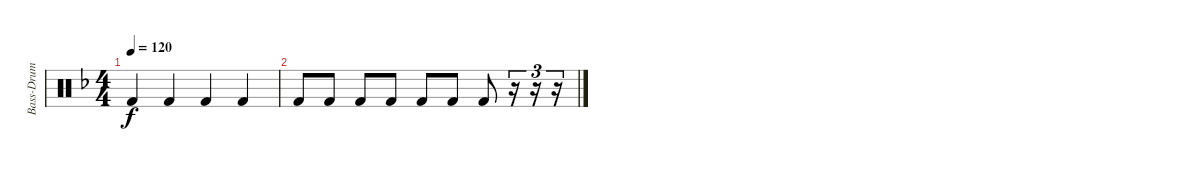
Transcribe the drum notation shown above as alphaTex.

\track ("Bass-Drum" "Bass-Drum") {instrument percussion}
\staff {score}
\articulation defaults
\ts (4 4)
\tempo 120
\clef neutral
\ks f "Kick (hit) 2".4{dy f} "Kick (hit) 2".4 "Kick (hit) 2".4 "Kick (hit) 2".4
|
"Kick (hit) 2".8 "Kick (hit) 2".8 "Kick (hit) 2".8 "Kick (hit) 2".8 "Kick (hit) 2".8 "Kick (hit) 2".8 "Kick (hit) 2".8 r.16{tu (3 2)} r.16{tu (3 2)} r.16{tu (3 2)}
